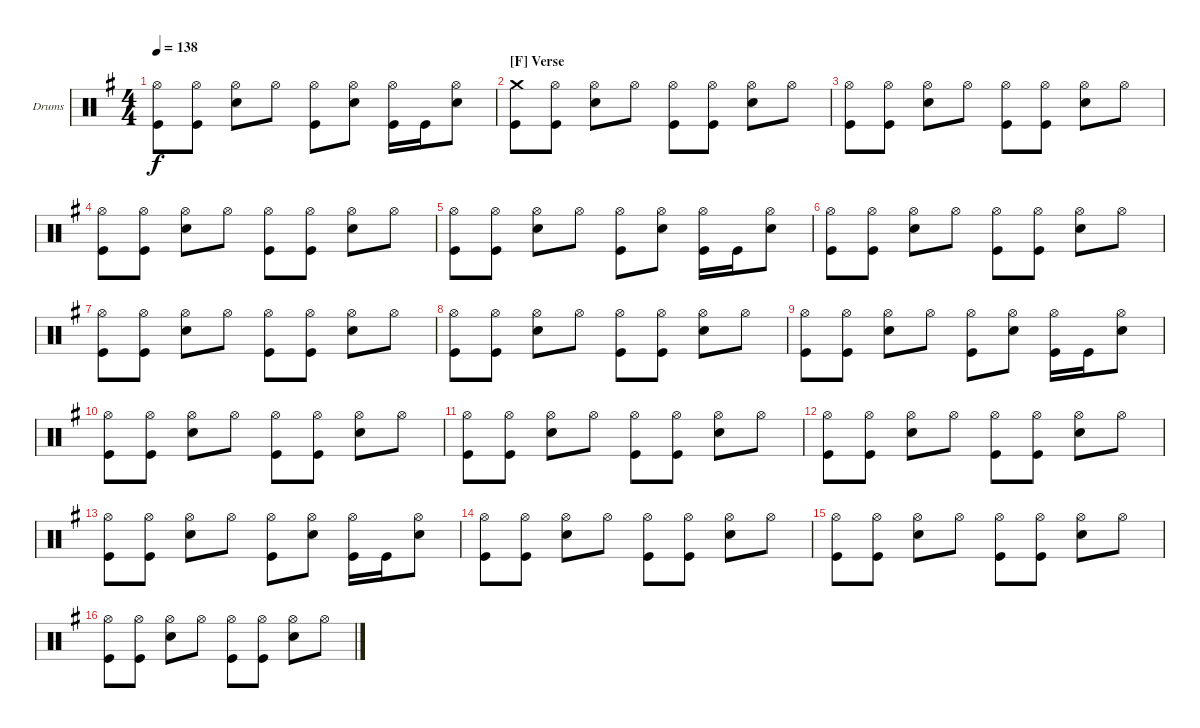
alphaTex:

\defaultSystemsLayout 4
\bracketExtendMode groupsimilarinstruments
\firstSystemTrackNameOrientation horizontal
\otherSystemsTrackNameOrientation horizontal
\track ("Drumkit" "Drums") {instrument percussion}
\staff {score}
\articulation defaults
\ts (4 4)
\tempo 138
\clef neutral
\scale
1.04288
\ks g
("Hi-Hat (open)" "Kick (hit)").8{dy f} ("Hi-Hat (open)" "Kick (hit)").8 ("Hi-Hat (open)" "Snare (hit) 2").8 "Hi-Hat (open)".8 ("Hi-Hat (open)" "Kick (hit)").8 ("Hi-Hat (open)" "Snare (hit) 2").8 ("Hi-Hat (open)" "Kick (hit)").16 "Kick (hit)".16 ("Hi-Hat (open)" "Snare (hit) 2").8 |
\section ("F" "Verse")
\scale
0.957125 ("Crash medium (hit)" "Kick (hit)").8 ("Hi-Hat (open)" "Kick (hit)").8 ("Hi-Hat (open)" "Snare (hit) 2").8 "Hi-Hat (open)".8 ("Hi-Hat (open)" "Kick (hit)").8 ("Hi-Hat (open)" "Kick (hit)").8 ("Hi-Hat (open)" "Snare (hit) 2").8 "Hi-Hat (open)".8 |
\scale
1.04288 ("Hi-Hat (open)" "Kick (hit)").8 ("Hi-Hat (open)" "Kick (hit)").8 ("Hi-Hat (open)" "Snare (hit) 2").8 "Hi-Hat (open)".8 ("Hi-Hat (open)" "Kick (hit)").8 ("Hi-Hat (open)" "Kick (hit)").8 ("Hi-Hat (open)" "Snare (hit) 2").8 "Hi-Hat (open)".8 |
\scale
0.957125 ("Hi-Hat (open)" "Kick (hit)").8 ("Hi-Hat (open)" "Kick (hit)").8 ("Hi-Hat (open)" "Snare (hit) 2").8 "Hi-Hat (open)".8 ("Hi-Hat (open)" "Kick (hit)").8 ("Hi-Hat (open)" "Kick (hit)").8 ("Hi-Hat (open)" "Snare (hit) 2").8 "Hi-Hat (open)".8 |
\scale
1.04288 ("Hi-Hat (open)" "Kick (hit)").8 ("Hi-Hat (open)" "Kick (hit)").8 ("Hi-Hat (open)" "Snare (hit) 2").8 "Hi-Hat (open)".8 ("Hi-Hat (open)" "Kick (hit)").8 ("Hi-Hat (open)" "Snare (hit) 2").8 ("Hi-Hat (open)" "Kick (hit)").16 "Kick (hit)".16 ("Hi-Hat (open)" "Snare (hit) 2").8 |
\scale
0.957125 ("Hi-Hat (open)" "Kick (hit)").8 ("Hi-Hat (open)" "Kick (hit)").8 ("Hi-Hat (open)" "Snare (hit) 2").8 "Hi-Hat (open)".8 ("Hi-Hat (open)" "Kick (hit)").8 ("Hi-Hat (open)" "Kick (hit)").8 ("Hi-Hat (open)" "Snare (hit) 2").8 "Hi-Hat (open)".8 |
\scale
1.04288 ("Hi-Hat (open)" "Kick (hit)").8 ("Hi-Hat (open)" "Kick (hit)").8 ("Hi-Hat (open)" "Snare (hit) 2").8 "Hi-Hat (open)".8 ("Hi-Hat (open)" "Kick (hit)").8 ("Hi-Hat (open)" "Kick (hit)").8 ("Hi-Hat (open)" "Snare (hit) 2").8 "Hi-Hat (open)".8 |
\scale
0.957125 ("Hi-Hat (open)" "Kick (hit)").8 ("Hi-Hat (open)" "Kick (hit)").8 ("Hi-Hat (open)" "Snare (hit) 2").8 "Hi-Hat (open)".8 ("Hi-Hat (open)" "Kick (hit)").8 ("Hi-Hat (open)" "Kick (hit)").8 ("Hi-Hat (open)" "Snare (hit) 2").8 "Hi-Hat (open)".8 |
\scale
1.04288 ("Hi-Hat (open)" "Kick (hit)").8 ("Hi-Hat (open)" "Kick (hit)").8 ("Hi-Hat (open)" "Snare (hit) 2").8 "Hi-Hat (open)".8 ("Hi-Hat (open)" "Kick (hit)").8 ("Hi-Hat (open)" "Snare (hit) 2").8 ("Hi-Hat (open)" "Kick (hit)").16 "Kick (hit)".16 ("Hi-Hat (open)" "Snare (hit) 2").8 |
\scale
0.957125 ("Hi-Hat (open)" "Kick (hit)").8 ("Hi-Hat (open)" "Kick (hit)").8 ("Hi-Hat (open)" "Snare (hit) 2").8 "Hi-Hat (open)".8 ("Hi-Hat (open)" "Kick (hit)").8 ("Hi-Hat (open)" "Kick (hit)").8 ("Hi-Hat (open)" "Snare (hit) 2").8 "Hi-Hat (open)".8 |
\scale
1.04288 ("Hi-Hat (open)" "Kick (hit)").8 ("Hi-Hat (open)" "Kick (hit)").8 ("Hi-Hat (open)" "Snare (hit) 2").8 "Hi-Hat (open)".8 ("Hi-Hat (open)" "Kick (hit)").8 ("Hi-Hat (open)" "Kick (hit)").8 ("Hi-Hat (open)" "Snare (hit) 2").8 "Hi-Hat (open)".8 |
\scale
0.957125 ("Hi-Hat (open)" "Kick (hit)").8 ("Hi-Hat (open)" "Kick (hit)").8 ("Hi-Hat (open)" "Snare (hit) 2").8 "Hi-Hat (open)".8 ("Hi-Hat (open)" "Kick (hit)").8 ("Hi-Hat (open)" "Kick (hit)").8 ("Hi-Hat (open)" "Snare (hit) 2").8 "Hi-Hat (open)".8 |
\scale
1.04288 ("Hi-Hat (open)" "Kick (hit)").8 ("Hi-Hat (open)" "Kick (hit)").8 ("Hi-Hat (open)" "Snare (hit) 2").8 "Hi-Hat (open)".8 ("Hi-Hat (open)" "Kick (hit)").8 ("Hi-Hat (open)" "Snare (hit) 2").8 ("Hi-Hat (open)" "Kick (hit)").16 "Kick (hit)".16 ("Hi-Hat (open)" "Snare (hit) 2").8 |
\scale
0.957125 ("Hi-Hat (open)" "Kick (hit)").8 ("Hi-Hat (open)" "Kick (hit)").8 ("Hi-Hat (open)" "Snare (hit) 2").8 "Hi-Hat (open)".8 ("Hi-Hat (open)" "Kick (hit)").8 ("Hi-Hat (open)" "Kick (hit)").8 ("Hi-Hat (open)" "Snare (hit) 2").8 "Hi-Hat (open)".8 |
\scale
1.04288 ("Hi-Hat (open)" "Kick (hit)").8 ("Hi-Hat (open)" "Kick (hit)").8 ("Hi-Hat (open)" "Snare (hit) 2").8 "Hi-Hat (open)".8 ("Hi-Hat (open)" "Kick (hit)").8 ("Hi-Hat (open)" "Kick (hit)").8 ("Hi-Hat (open)" "Snare (hit) 2").8 "Hi-Hat (open)".8 |
\scale
0.957125 ("Hi-Hat (open)" "Kick (hit)").8 ("Hi-Hat (open)" "Kick (hit)").8 ("Hi-Hat (open)" "Snare (hit) 2").8 "Hi-Hat (open)".8 ("Hi-Hat (open)" "Kick (hit)").8 ("Hi-Hat (open)" "Kick (hit)").8 ("Hi-Hat (open)" "Snare (hit) 2").8 "Hi-Hat (open)".8
